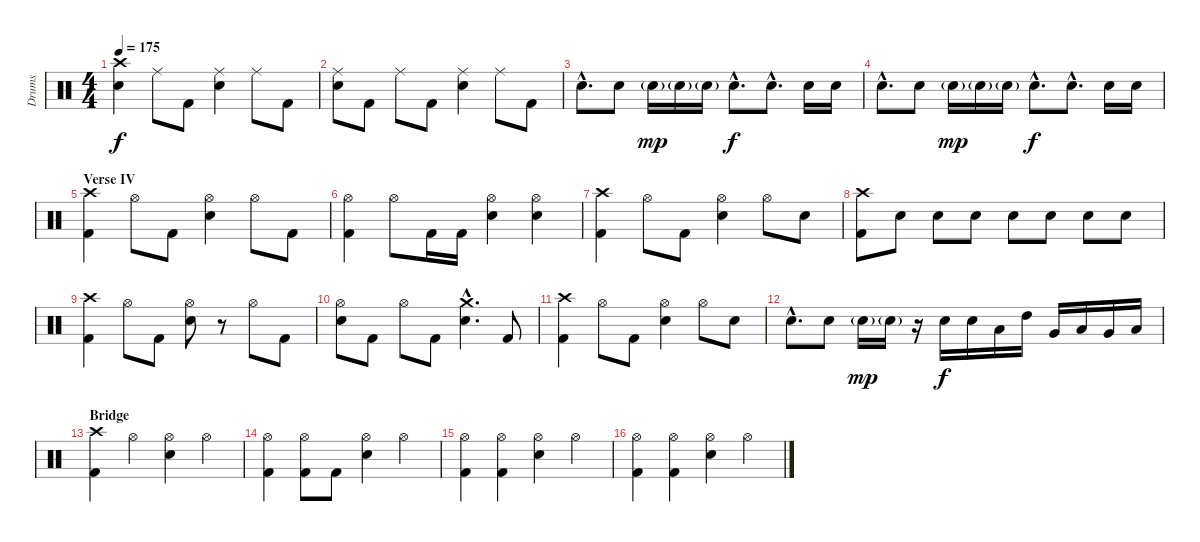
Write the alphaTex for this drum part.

\track ("Drums" "Drums") {instrument percussion}
\staff {score}
\articulation defaults
\ts (4 4)
\tempo 175
\clef neutral
\ks c
("Crash high (hit)" "Snare (hit) 2").4{dy f} "Ride (middle)".8 "Kick (hit) 2".8 ("Ride (middle)" "Snare (hit) 2").4 "Ride (middle)".8 "Kick (hit) 2".8 |
("Ride (middle)" "Snare (hit) 2").8 "Kick (hit) 2".8 "Ride (middle)".8 "Kick (hit) 2".8 ("Ride (middle)" "Snare (hit) 2").4 "Ride (middle)".8 "Kick (hit) 2".8 |
"Snare (hit) 2"{hac}.8{d} "Snare (hit) 2".8 "Snare (hit) 2"{g}.16{dy mp} "Snare (hit) 2"{g}.16 "Snare (hit) 2"{g}.16 "Snare (hit) 2"{hac}.8{d dy f} "Snare (hit) 2"{hac}.8{d} "Snare (hit) 2".16 "Snare (hit) 2".16 |
"Snare (hit) 2"{hac}.8{d} "Snare (hit) 2".8 "Snare (hit) 2"{g}.16{dy mp} "Snare (hit) 2"{g}.16 "Snare (hit) 2"{g}.16 "Snare (hit) 2"{hac}.8{d dy f} "Snare (hit) 2"{hac}.8{d} "Snare (hit) 2".16 "Snare (hit) 2".16 |
\section ("" "Verse IV")
("Crash high (hit)" "Kick (hit) 2").4 "Hi-Hat (open)".8 "Kick (hit) 2".8 ("Hi-Hat (open)" "Snare (hit) 2").4 "Hi-Hat (open)".8 "Kick (hit) 2".8 |
("Hi-Hat (open)" "Kick (hit) 2").4 "Hi-Hat (open)".8 "Kick (hit) 2".16 "Kick (hit) 2".16 ("Hi-Hat (open)" "Snare (hit) 2").4 ("Hi-Hat (open)" "Snare (hit) 2").4 |
("Crash high (hit)" "Kick (hit) 2").4 "Hi-Hat (open)".8 "Kick (hit) 2".8 ("Hi-Hat (open)" "Snare (hit) 2").4 "Hi-Hat (open)".8 "Snare (hit) 2".8 |
("Crash high (hit)" "Kick (hit) 2").8 "Snare (hit) 2".8 "Snare (hit) 2".8 "Snare (hit) 2".8 "Snare (hit) 2".8 "Snare (hit) 2".8 "Snare (hit) 2".8 "Snare (hit) 2".8 |
("Crash high (hit)" "Kick (hit) 2").4 "Hi-Hat (open)".8 "Kick (hit) 2".8 ("Hi-Hat (open)" "Snare (hit) 2").8 r.8 "Hi-Hat (open)".8 "Kick (hit) 2".8 |
("Hi-Hat (open)" "Snare (hit) 2").8 "Kick (hit) 2".8 "Hi-Hat (open)".8 "Kick (hit) 2".8 ("Crash medium (hit)"{hac} "Snare (hit) 2"{hac}).4{d} "Kick (hit) 2".8 |
("Crash high (hit)" "Kick (hit) 2").4 "Hi-Hat (open)".8 "Kick (hit) 2".8 ("Hi-Hat (open)" "Snare (hit) 2").4 "Hi-Hat (open)".8 "Snare (hit) 2".8 |
"Snare (hit) 2"{hac}.8{d} "Snare (hit) 2".8 "Snare (hit) 2"{g}.16{dy mp} "Snare (hit) 2"{g}.16 r.16 "Snare (hit) 2".16{dy f} "Snare (hit) 2".16 "Low Tom (hit)".16 "High Tom (hit)".16 "Very Low Tom (hit)".16 "Low Tom (hit)".16 "Very Low Tom (hit)".16 "Low Floor Tom (hit)".16 |
\section ("" "Bridge")
("Crash high (hit)" "Kick (hit) 2").4 "Hi-Hat (open)".4 ("Hi-Hat (open)" "Snare (hit) 2").4 "Hi-Hat (open)".4 |
("Hi-Hat (open)" "Kick (hit) 2").4 ("Hi-Hat (open)" "Kick (hit) 2").8 "Kick (hit) 2".8 ("Hi-Hat (open)" "Snare (hit) 2").4 "Hi-Hat (open)".4 |
("Hi-Hat (open)" "Kick (hit) 2").4 ("Hi-Hat (open)" "Kick (hit) 2").4 ("Hi-Hat (open)" "Snare (hit) 2").4 "Hi-Hat (open)".4 |
("Hi-Hat (open)" "Kick (hit) 2").4 ("Hi-Hat (open)" "Kick (hit) 2").4 ("Hi-Hat (open)" "Snare (hit) 2").4 "Hi-Hat (open)".4
